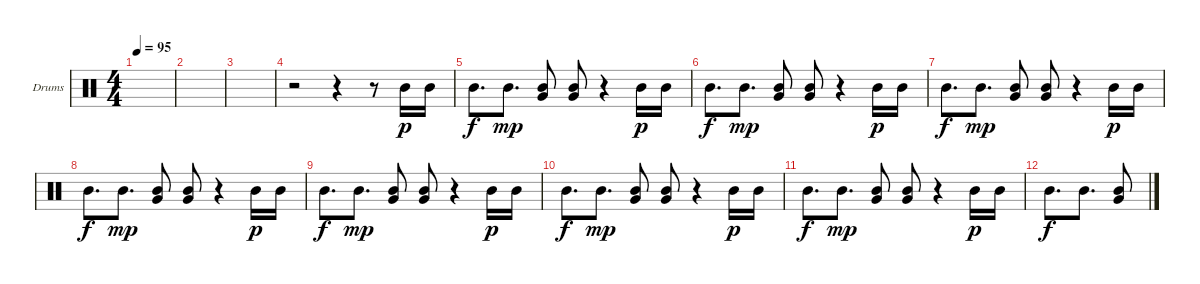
\defaultSystemsLayout 4
\bracketExtendMode groupsimilarinstruments
\firstSystemTrackNameOrientation horizontal
\otherSystemsTrackNameOrientation horizontal
\track ("Drumkit" "Drums") {instrument percussion}
\staff {score}
\articulation defaults
\ts (4 4)
\tempo 95
\clef neutral
\ks c
|
|
|
r.2 r.4 r.8 "Mid Tom (hit)".16{dy p} "Mid Tom (hit)".16 |
"Mid Tom (hit)".8{d dy f} "Mid Tom (hit)".8{d dy mp} ("Mid Tom (hit)" "Very Low Tom (hit)").8 ("Mid Tom (hit)" "Very Low Tom (hit)").8 r.4 "Mid Tom (hit)".16{dy p} "Mid Tom (hit)".16 |
"Mid Tom (hit)".8{d dy f} "Mid Tom (hit)".8{d dy mp} ("Mid Tom (hit)" "Very Low Tom (hit)").8 ("Mid Tom (hit)" "Very Low Tom (hit)").8 r.4 "Mid Tom (hit)".16{dy p} "Mid Tom (hit)".16 |
"Mid Tom (hit)".8{d dy f} "Mid Tom (hit)".8{d dy mp} ("Mid Tom (hit)" "Very Low Tom (hit)").8 ("Mid Tom (hit)" "Very Low Tom (hit)").8 r.4 "Mid Tom (hit)".16{dy p} "Mid Tom (hit)".16 |
"Mid Tom (hit)".8{d dy f} "Mid Tom (hit)".8{d dy mp} ("Mid Tom (hit)" "Very Low Tom (hit)").8 ("Mid Tom (hit)" "Very Low Tom (hit)").8 r.4 "Mid Tom (hit)".16{dy p} "Mid Tom (hit)".16 |
"Mid Tom (hit)".8{d dy f} "Mid Tom (hit)".8{d dy mp} ("Mid Tom (hit)" "Very Low Tom (hit)").8 ("Mid Tom (hit)" "Very Low Tom (hit)").8 r.4 "Mid Tom (hit)".16{dy p} "Mid Tom (hit)".16 |
"Mid Tom (hit)".8{d dy f} "Mid Tom (hit)".8{d dy mp} ("Mid Tom (hit)" "Very Low Tom (hit)").8 ("Mid Tom (hit)" "Very Low Tom (hit)").8 r.4 "Mid Tom (hit)".16{dy p} "Mid Tom (hit)".16 |
"Mid Tom (hit)".8{d dy f} "Mid Tom (hit)".8{d dy mp} ("Mid Tom (hit)" "Very Low Tom (hit)").8 ("Mid Tom (hit)" "Very Low Tom (hit)").8 r.4 "Mid Tom (hit)".16{dy p} "Mid Tom (hit)".16 |
"Mid Tom (hit)".8{d dy f} "Mid Tom (hit)".8{d} ("Mid Tom (hit)" "Very Low Tom (hit)").8
